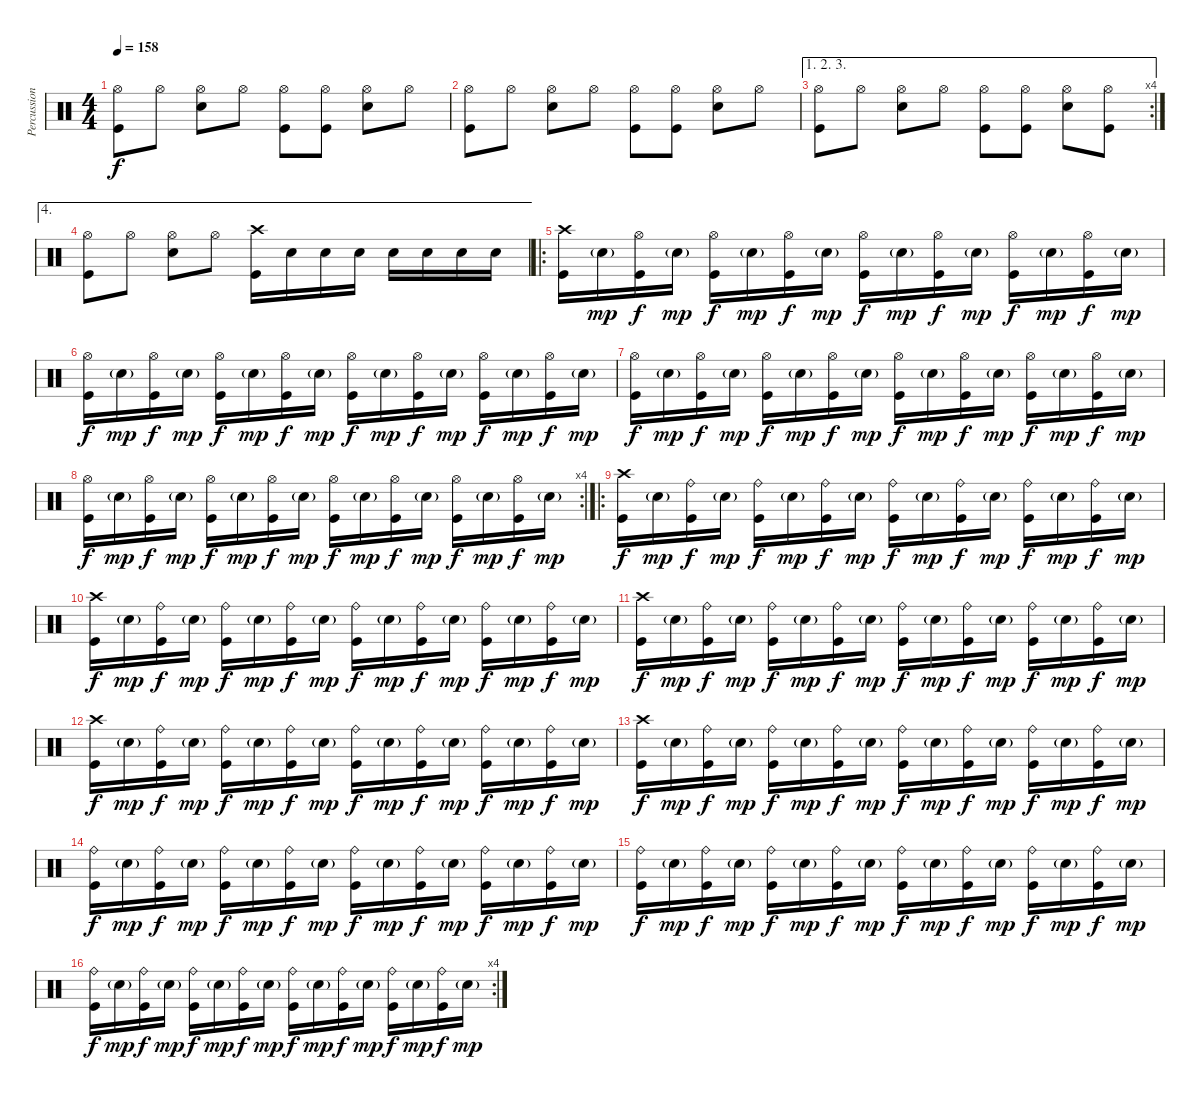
\track ("Percussion" "Percussion") {instrument percussion}
\staff {score}
\articulation defaults
\ts (4 4)
\tempo 158
\clef neutral
\ks c
("Hi-Hat (open)" "Kick (hit)").8{dy f} "Hi-Hat (open)".8 ("Hi-Hat (open)" "Snare (hit) 2").8 "Hi-Hat (open)".8 ("Hi-Hat (open)" "Kick (hit)").8 ("Hi-Hat (open)" "Kick (hit)").8 ("Hi-Hat (open)" "Snare (hit) 2").8 "Hi-Hat (open)".8 |
("Hi-Hat (open)" "Kick (hit)").8 "Hi-Hat (open)".8 ("Hi-Hat (open)" "Snare (hit) 2").8 "Hi-Hat (open)".8 ("Hi-Hat (open)" "Kick (hit)").8 ("Hi-Hat (open)" "Kick (hit)").8 ("Hi-Hat (open)" "Snare (hit) 2").8 "Hi-Hat (open)".8 |
\ae (1 2 3)
\rc 4
("Hi-Hat (open)" "Kick (hit)").8 "Hi-Hat (open)".8 ("Hi-Hat (open)" "Snare (hit) 2").8 "Hi-Hat (open)".8 ("Hi-Hat (open)" "Kick (hit)").8 ("Hi-Hat (open)" "Kick (hit)").8 ("Hi-Hat (open)" "Snare (hit) 2").8 ("Hi-Hat (open)" "Kick (hit)").8 |
\ae 4
("Hi-Hat (open)" "Kick (hit)").8 "Hi-Hat (open)".8 ("Hi-Hat (open)" "Snare (hit) 2").8 "Hi-Hat (open)".8 ("Crash high (hit)" "Kick (hit)").16 "Snare (hit) 2".16 "Snare (hit) 2".16 "Snare (hit) 2".16 "Snare (hit) 2".16 "Snare (hit) 2".16 "Snare (hit) 2".16 "Snare (hit) 2".16 |
\ro
("Crash high (hit)" "Kick (hit)").16 "Snare (hit) 2"{g}.16{dy mp} ("Hi-Hat (open)" "Kick (hit)").16{dy f} "Snare (hit) 2"{g}.16{dy mp} ("Hi-Hat (open)" "Kick (hit)").16{dy f} "Snare (hit) 2"{g}.16{dy mp} ("Hi-Hat (open)" "Kick (hit)").16{dy f} "Snare (hit) 2"{g}.16{dy mp} ("Hi-Hat (open)" "Kick (hit)").16{dy f} "Snare (hit) 2"{g}.16{dy mp} ("Hi-Hat (open)" "Kick (hit)").16{dy f} "Snare (hit) 2"{g}.16{dy mp} ("Hi-Hat (open)" "Kick (hit)").16{dy f} "Snare (hit) 2"{g}.16{dy mp} ("Hi-Hat (open)" "Kick (hit)").16{dy f} "Snare (hit) 2"{g}.16{dy mp} |
("Hi-Hat (open)" "Kick (hit)").16{dy f} "Snare (hit) 2"{g}.16{dy mp} ("Hi-Hat (open)" "Kick (hit)").16{dy f} "Snare (hit) 2"{g}.16{dy mp} ("Hi-Hat (open)" "Kick (hit)").16{dy f} "Snare (hit) 2"{g}.16{dy mp} ("Hi-Hat (open)" "Kick (hit)").16{dy f} "Snare (hit) 2"{g}.16{dy mp} ("Hi-Hat (open)" "Kick (hit)").16{dy f} "Snare (hit) 2"{g}.16{dy mp} ("Hi-Hat (open)" "Kick (hit)").16{dy f} "Snare (hit) 2"{g}.16{dy mp} ("Hi-Hat (open)" "Kick (hit)").16{dy f} "Snare (hit) 2"{g}.16{dy mp} ("Hi-Hat (open)" "Kick (hit)").16{dy f} "Snare (hit) 2"{g}.16{dy mp} |
("Hi-Hat (open)" "Kick (hit)").16{dy f} "Snare (hit) 2"{g}.16{dy mp} ("Hi-Hat (open)" "Kick (hit)").16{dy f} "Snare (hit) 2"{g}.16{dy mp} ("Hi-Hat (open)" "Kick (hit)").16{dy f} "Snare (hit) 2"{g}.16{dy mp} ("Hi-Hat (open)" "Kick (hit)").16{dy f} "Snare (hit) 2"{g}.16{dy mp} ("Hi-Hat (open)" "Kick (hit)").16{dy f} "Snare (hit) 2"{g}.16{dy mp} ("Hi-Hat (open)" "Kick (hit)").16{dy f} "Snare (hit) 2"{g}.16{dy mp} ("Hi-Hat (open)" "Kick (hit)").16{dy f} "Snare (hit) 2"{g}.16{dy mp} ("Hi-Hat (open)" "Kick (hit)").16{dy f} "Snare (hit) 2"{g}.16{dy mp} |
\rc 4
("Hi-Hat (open)" "Kick (hit)").16{dy f} "Snare (hit) 2"{g}.16{dy mp} ("Hi-Hat (open)" "Kick (hit)").16{dy f} "Snare (hit) 2"{g}.16{dy mp} ("Hi-Hat (open)" "Kick (hit)").16{dy f} "Snare (hit) 2"{g}.16{dy mp} ("Hi-Hat (open)" "Kick (hit)").16{dy f} "Snare (hit) 2"{g}.16{dy mp} ("Hi-Hat (open)" "Kick (hit)").16{dy f} "Snare (hit) 2"{g}.16{dy mp} ("Hi-Hat (open)" "Kick (hit)").16{dy f} "Snare (hit) 2"{g}.16{dy mp} ("Hi-Hat (open)" "Kick (hit)").16{dy f} "Snare (hit) 2"{g}.16{dy mp} ("Hi-Hat (open)" "Kick (hit)").16{dy f} "Snare (hit) 2"{g}.16{dy mp} |
\ro
("Crash high (hit)" "Kick (hit)").16{dy f} "Snare (hit) 2"{g}.16{dy mp} ("Ride (bell)" "Kick (hit)").16{dy f} "Snare (hit) 2"{g}.16{dy mp} ("Ride (bell)" "Kick (hit)").16{dy f} "Snare (hit) 2"{g}.16{dy mp} ("Ride (bell)" "Kick (hit)").16{dy f} "Snare (hit) 2"{g}.16{dy mp} ("Ride (bell)" "Kick (hit)").16{dy f} "Snare (hit) 2"{g}.16{dy mp} ("Ride (bell)" "Kick (hit)").16{dy f} "Snare (hit) 2"{g}.16{dy mp} ("Ride (bell)" "Kick (hit)").16{dy f} "Snare (hit) 2"{g}.16{dy mp} ("Ride (bell)" "Kick (hit)").16{dy f} "Snare (hit) 2"{g}.16{dy mp} |
("Crash high (hit)" "Kick (hit)").16{dy f} "Snare (hit) 2"{g}.16{dy mp} ("Ride (bell)" "Kick (hit)").16{dy f} "Snare (hit) 2"{g}.16{dy mp} ("Ride (bell)" "Kick (hit)").16{dy f} "Snare (hit) 2"{g}.16{dy mp} ("Ride (bell)" "Kick (hit)").16{dy f} "Snare (hit) 2"{g}.16{dy mp} ("Ride (bell)" "Kick (hit)").16{dy f} "Snare (hit) 2"{g}.16{dy mp} ("Ride (bell)" "Kick (hit)").16{dy f} "Snare (hit) 2"{g}.16{dy mp} ("Ride (bell)" "Kick (hit)").16{dy f} "Snare (hit) 2"{g}.16{dy mp} ("Ride (bell)" "Kick (hit)").16{dy f} "Snare (hit) 2"{g}.16{dy mp} |
("Crash high (hit)" "Kick (hit)").16{dy f} "Snare (hit) 2"{g}.16{dy mp} ("Ride (bell)" "Kick (hit)").16{dy f} "Snare (hit) 2"{g}.16{dy mp} ("Ride (bell)" "Kick (hit)").16{dy f} "Snare (hit) 2"{g}.16{dy mp} ("Ride (bell)" "Kick (hit)").16{dy f} "Snare (hit) 2"{g}.16{dy mp} ("Ride (bell)" "Kick (hit)").16{dy f} "Snare (hit) 2"{g}.16{dy mp} ("Ride (bell)" "Kick (hit)").16{dy f} "Snare (hit) 2"{g}.16{dy mp} ("Ride (bell)" "Kick (hit)").16{dy f} "Snare (hit) 2"{g}.16{dy mp} ("Ride (bell)" "Kick (hit)").16{dy f} "Snare (hit) 2"{g}.16{dy mp} |
("Crash high (hit)" "Kick (hit)").16{dy f} "Snare (hit) 2"{g}.16{dy mp} ("Ride (bell)" "Kick (hit)").16{dy f} "Snare (hit) 2"{g}.16{dy mp} ("Ride (bell)" "Kick (hit)").16{dy f} "Snare (hit) 2"{g}.16{dy mp} ("Ride (bell)" "Kick (hit)").16{dy f} "Snare (hit) 2"{g}.16{dy mp} ("Ride (bell)" "Kick (hit)").16{dy f} "Snare (hit) 2"{g}.16{dy mp} ("Ride (bell)" "Kick (hit)").16{dy f} "Snare (hit) 2"{g}.16{dy mp} ("Ride (bell)" "Kick (hit)").16{dy f} "Snare (hit) 2"{g}.16{dy mp} ("Ride (bell)" "Kick (hit)").16{dy f} "Snare (hit) 2"{g}.16{dy mp} |
("Crash high (hit)" "Kick (hit)").16{dy f} "Snare (hit) 2"{g}.16{dy mp} ("Ride (bell)" "Kick (hit)").16{dy f} "Snare (hit) 2"{g}.16{dy mp} ("Ride (bell)" "Kick (hit)").16{dy f} "Snare (hit) 2"{g}.16{dy mp} ("Ride (bell)" "Kick (hit)").16{dy f} "Snare (hit) 2"{g}.16{dy mp} ("Ride (bell)" "Kick (hit)").16{dy f} "Snare (hit) 2"{g}.16{dy mp} ("Ride (bell)" "Kick (hit)").16{dy f} "Snare (hit) 2"{g}.16{dy mp} ("Ride (bell)" "Kick (hit)").16{dy f} "Snare (hit) 2"{g}.16{dy mp} ("Ride (bell)" "Kick (hit)").16{dy f} "Snare (hit) 2"{g}.16{dy mp} |
("Ride (bell)" "Kick (hit)").16{dy f} "Snare (hit) 2"{g}.16{dy mp} ("Ride (bell)" "Kick (hit)").16{dy f} "Snare (hit) 2"{g}.16{dy mp} ("Ride (bell)" "Kick (hit)").16{dy f} "Snare (hit) 2"{g}.16{dy mp} ("Ride (bell)" "Kick (hit)").16{dy f} "Snare (hit) 2"{g}.16{dy mp} ("Ride (bell)" "Kick (hit)").16{dy f} "Snare (hit) 2"{g}.16{dy mp} ("Ride (bell)" "Kick (hit)").16{dy f} "Snare (hit) 2"{g}.16{dy mp} ("Ride (bell)" "Kick (hit)").16{dy f} "Snare (hit) 2"{g}.16{dy mp} ("Ride (bell)" "Kick (hit)").16{dy f} "Snare (hit) 2"{g}.16{dy mp} |
("Ride (bell)" "Kick (hit)").16{dy f} "Snare (hit) 2"{g}.16{dy mp} ("Ride (bell)" "Kick (hit)").16{dy f} "Snare (hit) 2"{g}.16{dy mp} ("Ride (bell)" "Kick (hit)").16{dy f} "Snare (hit) 2"{g}.16{dy mp} ("Ride (bell)" "Kick (hit)").16{dy f} "Snare (hit) 2"{g}.16{dy mp} ("Ride (bell)" "Kick (hit)").16{dy f} "Snare (hit) 2"{g}.16{dy mp} ("Ride (bell)" "Kick (hit)").16{dy f} "Snare (hit) 2"{g}.16{dy mp} ("Ride (bell)" "Kick (hit)").16{dy f} "Snare (hit) 2"{g}.16{dy mp} ("Ride (bell)" "Kick (hit)").16{dy f} "Snare (hit) 2"{g}.16{dy mp} |
\rc 4
("Ride (bell)" "Kick (hit)").16{dy f} "Snare (hit) 2"{g}.16{dy mp} ("Ride (bell)" "Kick (hit)").16{dy f} "Snare (hit) 2"{g}.16{dy mp} ("Ride (bell)" "Kick (hit)").16{dy f} "Snare (hit) 2"{g}.16{dy mp} ("Ride (bell)" "Kick (hit)").16{dy f} "Snare (hit) 2"{g}.16{dy mp} ("Ride (bell)" "Kick (hit)").16{dy f} "Snare (hit) 2"{g}.16{dy mp} ("Ride (bell)" "Kick (hit)").16{dy f} "Snare (hit) 2"{g}.16{dy mp} ("Ride (bell)" "Kick (hit)").16{dy f} "Snare (hit) 2"{g}.16{dy mp} ("Ride (bell)" "Kick (hit)").16{dy f} "Snare (hit) 2"{g}.16{dy mp}
